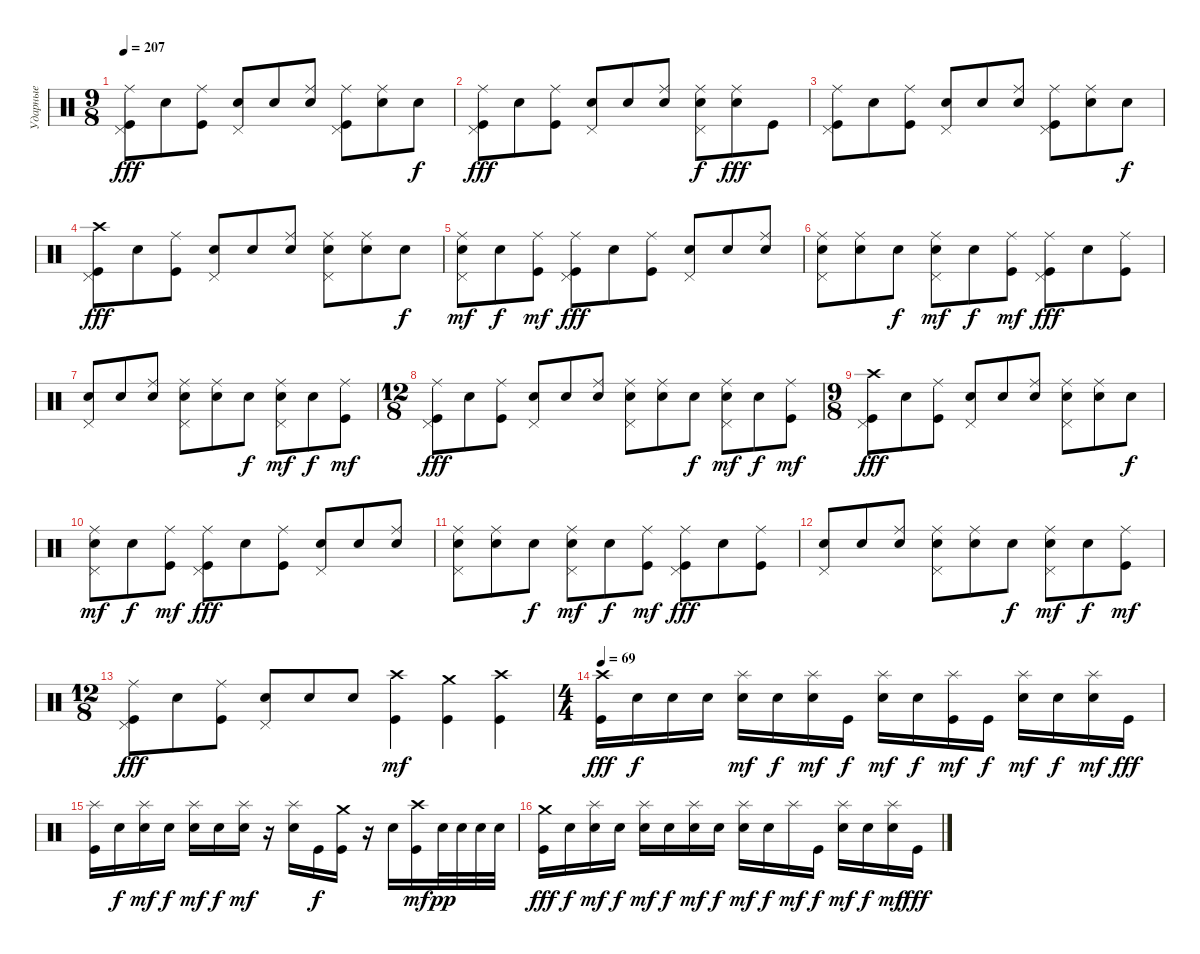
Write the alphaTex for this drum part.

\track ("Ударные" "Ударные") {instrument percussion}
\staff {score}
\articulation defaults
\ts (9 8)
\tempo 207
\clef neutral
\ks c
("Ride (middle)" "Pedal Hi-Hat (hit)" "Kick (hit)").8{dy fff} "Snare (hit)".8 ("Ride (middle)" "Kick (hit)").8 ("Pedal Hi-Hat (hit)" "Snare (hit)").8 "Snare (hit)".8 ("Ride (middle)" "Snare (hit)").8 ("Ride (middle)" "Pedal Hi-Hat (hit)" "Kick (hit)").8 ("Ride (middle)" "Snare (hit)").8 "Electric Snare (hit)".8{dy f} |
("Ride (middle)" "Pedal Hi-Hat (hit)" "Kick (hit)").8{dy fff} "Snare (hit)".8 ("Ride (middle)" "Kick (hit)").8 ("Pedal Hi-Hat (hit)" "Snare (hit)").8 "Snare (hit)".8 ("Ride (middle)" "Snare (hit)").8 ("Ride (middle)" "Pedal Hi-Hat (hit)" "Electric Snare (hit)").8{dy f} ("Ride (middle)" "Snare (hit)").8{dy fff} "Kick (hit)".8 |
("Ride (middle)" "Pedal Hi-Hat (hit)" "Kick (hit)").8 "Snare (hit)".8 ("Ride (middle)" "Kick (hit)").8 ("Pedal Hi-Hat (hit)" "Snare (hit)").8 "Snare (hit)".8 ("Ride (middle)" "Snare (hit)").8 ("Ride (middle)" "Pedal Hi-Hat (hit)" "Kick (hit)").8 ("Ride (middle)" "Snare (hit)").8 "Electric Snare (hit)".8{dy f} |
("Crash high (hit)" "Pedal Hi-Hat (hit)" "Kick (hit)").8{dy fff} "Snare (hit)".8 ("Ride (middle)" "Kick (hit)").8 ("Pedal Hi-Hat (hit)" "Snare (hit)").8 "Snare (hit)".8 ("Ride (middle)" "Snare (hit)").8 ("Ride (middle)" "Pedal Hi-Hat (hit)" "Electric Snare (hit)").8 ("Ride (middle)" "Snare (hit)").8 "Snare (hit)".8{dy f} |
("Ride (middle)" "Pedal Hi-Hat (hit)" "Snare (hit)").8{dy mf} "Snare (hit)".8{dy f} ("Ride (middle)" "Kick (hit)").8{dy mf} ("Ride (middle)" "Pedal Hi-Hat (hit)" "Kick (hit)").8{dy fff} "Snare (hit)".8 ("Ride (middle)" "Kick (hit)").8 ("Pedal Hi-Hat (hit)" "Snare (hit)").8 "Snare (hit)".8 ("Ride (middle)" "Snare (hit)").8 |
("Ride (middle)" "Pedal Hi-Hat (hit)" "Electric Snare (hit)").8 ("Ride (middle)" "Snare (hit)").8 "Snare (hit)".8{dy f} ("Ride (middle)" "Pedal Hi-Hat (hit)" "Snare (hit)").8{dy mf} "Snare (hit)".8{dy f} ("Ride (middle)" "Kick (hit)").8{dy mf} ("Ride (middle)" "Pedal Hi-Hat (hit)" "Kick (hit)").8{dy fff} "Snare (hit)".8 ("Ride (middle)" "Kick (hit)").8 |
("Pedal Hi-Hat (hit)" "Snare (hit)").8 "Snare (hit)".8 ("Ride (middle)" "Snare (hit)").8 ("Ride (middle)" "Pedal Hi-Hat (hit)" "Electric Snare (hit)").8 ("Ride (middle)" "Snare (hit)").8 "Snare (hit)".8{dy f} ("Ride (middle)" "Pedal Hi-Hat (hit)" "Snare (hit)").8{dy mf} "Snare (hit)".8{dy f} ("Ride (middle)" "Kick (hit)").8{dy mf} |
\ts (12 8)
("Ride (middle)" "Pedal Hi-Hat (hit)" "Kick (hit)").8{dy fff} "Snare (hit)".8 ("Ride (middle)" "Kick (hit)").8 ("Pedal Hi-Hat (hit)" "Snare (hit)").8 "Snare (hit)".8 ("Ride (middle)" "Snare (hit)").8 ("Ride (middle)" "Pedal Hi-Hat (hit)" "Electric Snare (hit)").8 ("Ride (middle)" "Snare (hit)").8 "Snare (hit)".8{dy f} ("Ride (middle)" "Pedal Hi-Hat (hit)" "Snare (hit)").8{dy mf} "Snare (hit)".8{dy f} ("Ride (middle)" "Kick (hit)").8{dy mf} |
\ts (9 8)
("Crash high (hit)" "Pedal Hi-Hat (hit)" "Kick (hit)").8{dy fff} "Snare (hit)".8 ("Ride (middle)" "Kick (hit)").8 ("Pedal Hi-Hat (hit)" "Snare (hit)").8 "Snare (hit)".8 ("Ride (middle)" "Snare (hit)").8 ("Ride (middle)" "Pedal Hi-Hat (hit)" "Electric Snare (hit)").8 ("Ride (middle)" "Snare (hit)").8 "Snare (hit)".8{dy f} |
("Ride (middle)" "Pedal Hi-Hat (hit)" "Snare (hit)").8{dy mf} "Snare (hit)".8{dy f} ("Ride (middle)" "Kick (hit)").8{dy mf} ("Ride (middle)" "Pedal Hi-Hat (hit)" "Kick (hit)").8{dy fff} "Snare (hit)".8 ("Ride (middle)" "Kick (hit)").8 ("Pedal Hi-Hat (hit)" "Snare (hit)").8 "Snare (hit)".8 ("Ride (middle)" "Snare (hit)").8 |
("Ride (middle)" "Pedal Hi-Hat (hit)" "Electric Snare (hit)").8 ("Ride (middle)" "Snare (hit)").8 "Snare (hit)".8{dy f} ("Ride (middle)" "Pedal Hi-Hat (hit)" "Snare (hit)").8{dy mf} "Snare (hit)".8{dy f} ("Ride (middle)" "Kick (hit)").8{dy mf} ("Ride (middle)" "Pedal Hi-Hat (hit)" "Kick (hit)").8{dy fff} "Snare (hit)".8 ("Ride (middle)" "Kick (hit)").8 |
("Pedal Hi-Hat (hit)" "Snare (hit)").8 "Snare (hit)".8 ("Ride (middle)" "Snare (hit)").8 ("Ride (middle)" "Pedal Hi-Hat (hit)" "Electric Snare (hit)").8 ("Ride (middle)" "Snare (hit)").8 "Snare (hit)".8{dy f} ("Ride (middle)" "Pedal Hi-Hat (hit)" "Snare (hit)").8{dy mf} "Snare (hit)".8{dy f} ("Ride (middle)" "Kick (hit)").8{dy mf} |
\ts (12 8)
("Ride (middle)" "Pedal Hi-Hat (hit)" "Kick (hit)").8{dy fff} "Snare (hit)".8 ("Ride (middle)" "Kick (hit)").8 ("Pedal Hi-Hat (hit)" "Snare (hit)").8 "Snare (hit)".8 "Electric Snare (hit)".8 ("Crash high (hit)" "Kick (hit)").4{dy mf} ("Crash medium (hit)" "Kick (hit)").4 ("Crash high (hit)" "Kick (hit)").4 |
\ts (4 4)
\tempo 69
("Crash high (hit)" "Kick (hit)").16{dy fff} "Snare (hit)".16{dy f} "Snare (hit)".16 "Snare (hit)".16 ("Splash (hit)" "Electric Snare (hit)").16{dy mf} "Snare (hit)".16{dy f} ("Splash (hit)" "Snare (hit)").16{dy mf} "Kick (hit)".16{dy f} ("Splash (hit)" "Snare (hit)").16{dy mf} "Snare (hit)".16{dy f} ("Splash (hit)" "Kick (hit)").16{dy mf} "Kick (hit)".16{dy f} ("Splash (hit)" "Electric Snare (hit)").16{dy mf} "Snare (hit)".16{dy f} ("Splash (hit)" "Snare (hit)").16{dy mf} "Kick (hit)".16{dy fff} |
("Splash (hit)" "Kick (hit)").16 "Snare (hit)".16{dy f} ("Splash (hit)" "Snare (hit)").16{dy mf} "Snare (hit)".16{dy f} ("Splash (hit)" "Electric Snare (hit)").16{dy mf} "Snare (hit)".16{dy f} ("Splash (hit)" "Snare (hit)").16{dy mf} r.16 ("Splash (hit)" "Snare (hit)").16 "Kick (hit)".16{dy f} ("Crash medium (hit)" "Kick (hit)").16 r.16 "Electric Snare (hit)".16 ("Crash high (hit)" "Kick (hit)").16{dy mf} "Electric Snare (hit)".32{dy pp} "Electric Snare (hit)".32 "Electric Snare (hit)".32 "Electric Snare (hit)".32 |
("Crash medium (hit)" "Kick (hit)").16{dy fff} "Snare (hit)".16{dy f} ("Splash (hit)" "Snare (hit)").16{dy mf} "Snare (hit)".16{dy f} ("Splash (hit)" "Electric Snare (hit)").16{dy mf} "Snare (hit)".16{dy f} ("Splash (hit)" "Snare (hit)").16{dy mf} "Snare (hit)".16{dy f} ("Splash (hit)" "Snare (hit)").16{dy mf} "Snare (hit)".16{dy f} "Splash (hit)".16{dy mf} "Kick (hit)".16{dy f} ("Splash (hit)" "Electric Snare (hit)").16{dy mf} "Snare (hit)".16{dy f} ("Splash (hit)" "Snare (hit)").16{dy mf} "Kick (hit)".16{dy fff}
